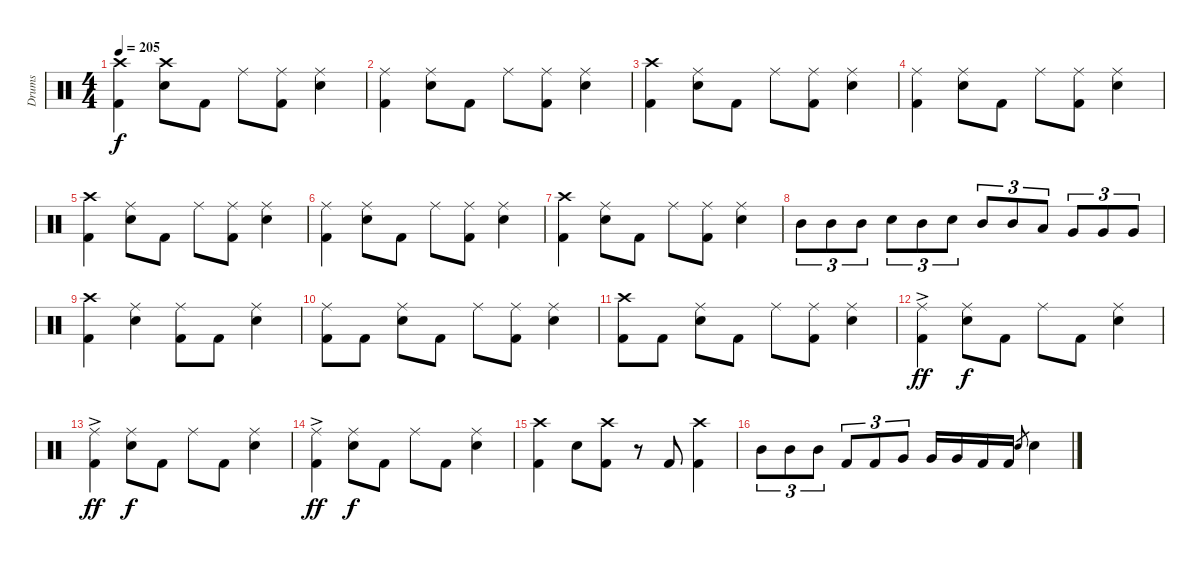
\track ("Drums" "Drums") {instrument percussion}
\staff {score}
\articulation defaults
\ts (4 4)
\tempo 205
\clef neutral
\ks c
("Crash high (hit)" "Kick (hit) 2").4{dy f} ("Crash high (hit)" "Electric Snare (hit)").8 "Kick (hit) 2".8 "Ride (middle)".8 ("Ride (middle)" "Kick (hit) 2").8 ("Ride (middle)" "Electric Snare (hit)").4 |
("Ride (middle)" "Kick (hit) 2").4 ("Ride (middle)" "Electric Snare (hit)").8 "Kick (hit) 2".8 "Ride (middle)".8 ("Ride (middle)" "Kick (hit) 2").8 ("Ride (middle)" "Electric Snare (hit)").4 |
("Crash high (hit)" "Kick (hit) 2").4 ("Ride (middle)" "Electric Snare (hit)").8 "Kick (hit) 2".8 "Ride (middle)".8 ("Ride (middle)" "Kick (hit) 2").8 ("Ride (middle)" "Electric Snare (hit)").4 |
("Ride (middle)" "Kick (hit) 2").4 ("Ride (middle)" "Electric Snare (hit)").8 "Kick (hit) 2".8 "Ride (middle)".8 ("Ride (middle)" "Kick (hit) 2").8 ("Ride (middle)" "Electric Snare (hit)").4 |
("Crash high (hit)" "Kick (hit) 2").4 ("Ride (middle)" "Electric Snare (hit)").8 "Kick (hit) 2".8 "Ride (middle)".8 ("Ride (middle)" "Kick (hit) 2").8 ("Ride (middle)" "Electric Snare (hit)").4 |
("Ride (middle)" "Kick (hit) 2").4 ("Ride (middle)" "Electric Snare (hit)").8 "Kick (hit) 2".8 "Ride (middle)".8 ("Ride (middle)" "Kick (hit) 2").8 ("Ride (middle)" "Electric Snare (hit)").4 |
("Crash high (hit)" "Kick (hit) 2").4 ("Ride (middle)" "Electric Snare (hit)").8 "Kick (hit) 2".8 "Ride (middle)".8 ("Ride (middle)" "Kick (hit) 2").8 ("Ride (middle)" "Electric Snare (hit)").4 |
"Mid Tom (hit)".8{tu (3 2)} "Mid Tom (hit)".8{tu (3 2)} "Mid Tom (hit)".8{tu (3 2)} "Electric Snare (hit)".8{tu (3 2)} "Mid Tom (hit)".8{tu (3 2)} "Electric Snare (hit)".8{tu (3 2)} "Mid Tom (hit)".8{tu (3 2)} "Mid Tom (hit)".8{tu (3 2)} "Low Tom (hit)".8{tu (3 2)} "Very Low Tom (hit)".8{tu (3 2)} "Very Low Tom (hit)".8{tu (3 2)} "Very Low Tom (hit)".8{tu (3 2)} |
("Crash high (hit)" "Kick (hit) 2").4 ("Ride (middle)" "Electric Snare (hit)").4 ("Ride (middle)" "Kick (hit) 2").8 "Kick (hit) 2".8 ("Ride (middle)" "Electric Snare (hit)").4 |
("Ride (middle)" "Kick (hit) 2").8 "Kick (hit) 2".8 ("Ride (middle)" "Electric Snare (hit)").8 "Kick (hit) 2".8 "Ride (middle)".8 ("Ride (middle)" "Kick (hit) 2").8 ("Ride (middle)" "Electric Snare (hit)").4 |
("Crash high (hit)" "Kick (hit) 2").8 "Kick (hit) 2".8 ("Ride (middle)" "Electric Snare (hit)").8 "Kick (hit) 2".8 "Ride (middle)".8 ("Ride (middle)" "Kick (hit) 2").8 ("Ride (middle)" "Electric Snare (hit)").4 |
("Ride (middle)"{ac} "Kick (hit) 2").4{dy ff} ("Ride (middle)" "Electric Snare (hit)").8{dy f} "Kick (hit) 2".8 "Ride (middle)".8 "Kick (hit) 2".8 ("Ride (middle)" "Electric Snare (hit)").4 |
("Ride (middle)"{ac} "Kick (hit) 2").4{dy ff} ("Ride (middle)" "Electric Snare (hit)").8{dy f} "Kick (hit) 2".8 "Ride (middle)".8 "Kick (hit) 2".8 ("Ride (middle)" "Electric Snare (hit)").4 |
("Ride (middle)"{ac} "Kick (hit) 2").4{dy ff} ("Ride (middle)" "Electric Snare (hit)").8{dy f} "Kick (hit) 2".8 "Ride (middle)".8 "Kick (hit) 2".8 ("Ride (middle)" "Electric Snare (hit)").4 |
("Crash high (hit)" "Kick (hit) 2").4 "Electric Snare (hit)".8 ("Crash high (hit)" "Kick (hit) 2").8 r.8 "Kick (hit) 2".8 ("Crash high (hit)" "Kick (hit) 2").4 |
"Mid Tom (hit)".8{tu (3 2)} "Mid Tom (hit)".8{tu (3 2)} "Mid Tom (hit)".8{tu (3 2)} "Kick (hit) 2".8{tu (3 2)} "Kick (hit) 2".8{tu (3 2)} "Very Low Tom (hit)".8{tu (3 2)} "Very Low Tom (hit)".16 "Very Low Tom (hit)".16 "Kick (hit) 2".16 "Kick (hit) 2".16 "Electric Snare (hit)".8{gr} "Electric Snare (hit)".4
